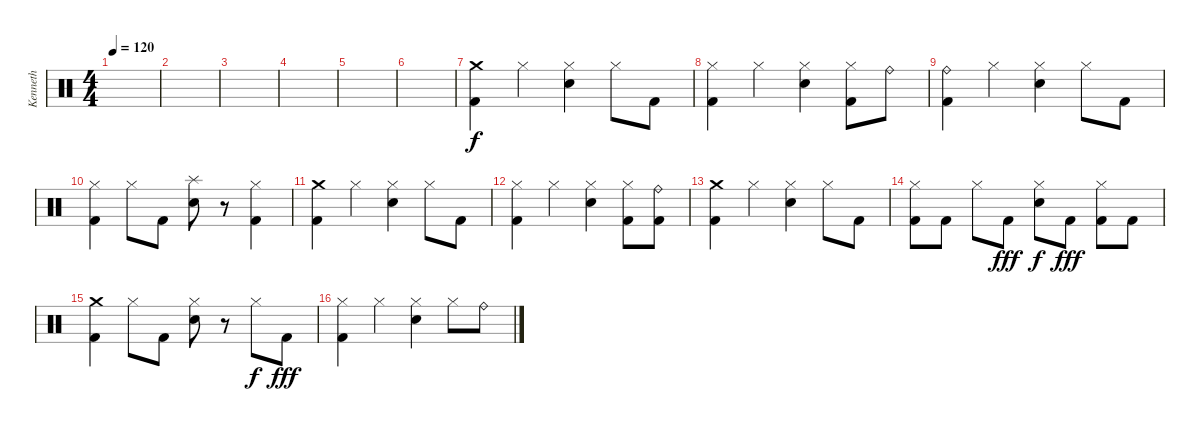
\track ("Kenneth" "Kenneth") {instrument percussion}
\staff {score}
\articulation defaults
\ts (4 4)
\tempo 120
\clef neutral
\ks c
|
|
|
|
|
|
("Crash medium (hit)" "Kick (hit) 2").4 "Hi-Hat (closed)".4 ("Hi-Hat (closed)" "Snare (hit) 2").4 "Hi-Hat (closed)".8 "Kick (hit) 2".8 |
("Hi-Hat (closed)" "Kick (hit) 2").4 "Hi-Hat (closed)".4 ("Hi-Hat (closed)" "Snare (hit) 2").4 ("Hi-Hat (closed)" "Kick (hit) 2").8 "Ride (bell)".8 |
("Ride (bell)" "Kick (hit) 2").4 "Hi-Hat (closed)".4 ("Hi-Hat (closed)" "Snare (hit) 2").4 "Hi-Hat (closed)".8 "Kick (hit) 2".8 |
("Hi-Hat (closed)" "Kick (hit) 2").4 "Hi-Hat (closed)".8 "Kick (hit) 2".8 ("Splash (hit)" "Snare (hit) 2").8 r.8 ("Hi-Hat (closed)" "Kick (hit) 2").4 |
("Crash medium (hit)" "Kick (hit) 2").4 "Hi-Hat (closed)".4 ("Hi-Hat (closed)" "Snare (hit) 2").4 "Hi-Hat (closed)".8 "Kick (hit) 2".8 |
("Hi-Hat (closed)" "Kick (hit) 2").4 "Hi-Hat (closed)".4 ("Hi-Hat (closed)" "Snare (hit) 2").4 ("Hi-Hat (closed)" "Kick (hit) 2").8 ("Ride (bell)" "Kick (hit) 2").8 |
("Crash medium (hit)" "Kick (hit) 2").4 "Hi-Hat (closed)".4 ("Hi-Hat (closed)" "Snare (hit) 2").4 "Hi-Hat (closed)".8 "Kick (hit) 2".8 |
("Hi-Hat (closed)" "Kick (hit) 2").8 "Kick (hit) 2".8 "Hi-Hat (closed)".8{dy f} "Kick (hit) 2".8{dy fff} ("Hi-Hat (closed)" "Snare (hit) 2").8{dy f} "Kick (hit) 2".8{dy fff} ("Hi-Hat (closed)" "Kick (hit) 2").8 "Kick (hit) 2".8 |
("Crash medium (hit)" "Kick (hit) 2").4 "Hi-Hat (closed)".8 "Kick (hit) 2".8 ("Hi-Hat (closed)" "Snare (hit) 2").8 r.8 "Hi-Hat (closed)".8{dy f} "Kick (hit) 2".8{dy fff} |
("Hi-Hat (closed)" "Kick (hit) 2").4 "Hi-Hat (closed)".4 ("Hi-Hat (closed)" "Snare (hit) 2").4 "Hi-Hat (closed)".8 "Ride (bell)".8
